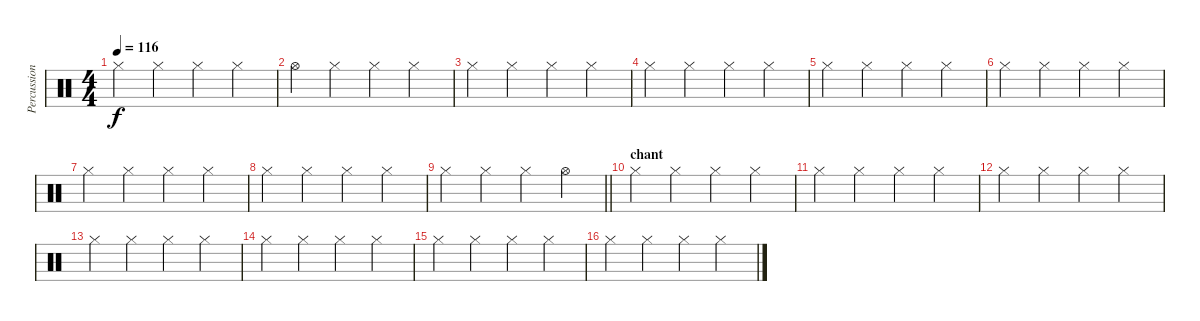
\track ("Percussions" "Percussion") {instrument percussion}
\staff {score}
\articulation defaults
\ts (4 4)
\tempo 116
\clef neutral
\ks c "Hi-Hat (closed)".4{dy f} "Hi-Hat (closed)".4 "Hi-Hat (closed)".4 "Hi-Hat (closed)".4
|
"Hi-Hat (open)".4 "Hi-Hat (closed)".4 "Hi-Hat (closed)".4 "Hi-Hat (closed)".4 |
"Hi-Hat (closed)".4 "Hi-Hat (closed)".4 "Hi-Hat (closed)".4 "Hi-Hat (closed)".4 |
"Hi-Hat (closed)".4 "Hi-Hat (closed)".4 "Hi-Hat (closed)".4 "Hi-Hat (closed)".4 |
"Hi-Hat (closed)".4 "Hi-Hat (closed)".4 "Hi-Hat (closed)".4 "Hi-Hat (closed)".4 |
"Hi-Hat (closed)".4 "Hi-Hat (closed)".4 "Hi-Hat (closed)".4 "Hi-Hat (closed)".4 |
"Hi-Hat (closed)".4 "Hi-Hat (closed)".4 "Hi-Hat (closed)".4 "Hi-Hat (closed)".4 |
"Hi-Hat (closed)".4 "Hi-Hat (closed)".4 "Hi-Hat (closed)".4 "Hi-Hat (closed)".4 |
\barLineRight lightlight "Hi-Hat (closed)".4 "Hi-Hat (closed)".4 "Hi-Hat (closed)".4 "Hi-Hat (open)".4
|
\section ("" "chant")
"Hi-Hat (closed)".4 "Hi-Hat (closed)".4 "Hi-Hat (closed)".4 "Hi-Hat (closed)".4 |
"Hi-Hat (closed)".4 "Hi-Hat (closed)".4 "Hi-Hat (closed)".4 "Hi-Hat (closed)".4 |
"Hi-Hat (closed)".4 "Hi-Hat (closed)".4 "Hi-Hat (closed)".4 "Hi-Hat (closed)".4 |
"Hi-Hat (closed)".4 "Hi-Hat (closed)".4 "Hi-Hat (closed)".4 "Hi-Hat (closed)".4 |
"Hi-Hat (closed)".4 "Hi-Hat (closed)".4 "Hi-Hat (closed)".4 "Hi-Hat (closed)".4 |
"Hi-Hat (closed)".4 "Hi-Hat (closed)".4 "Hi-Hat (closed)".4 "Hi-Hat (closed)".4 |
"Hi-Hat (closed)".4 "Hi-Hat (closed)".4 "Hi-Hat (closed)".4 "Hi-Hat (closed)".4
